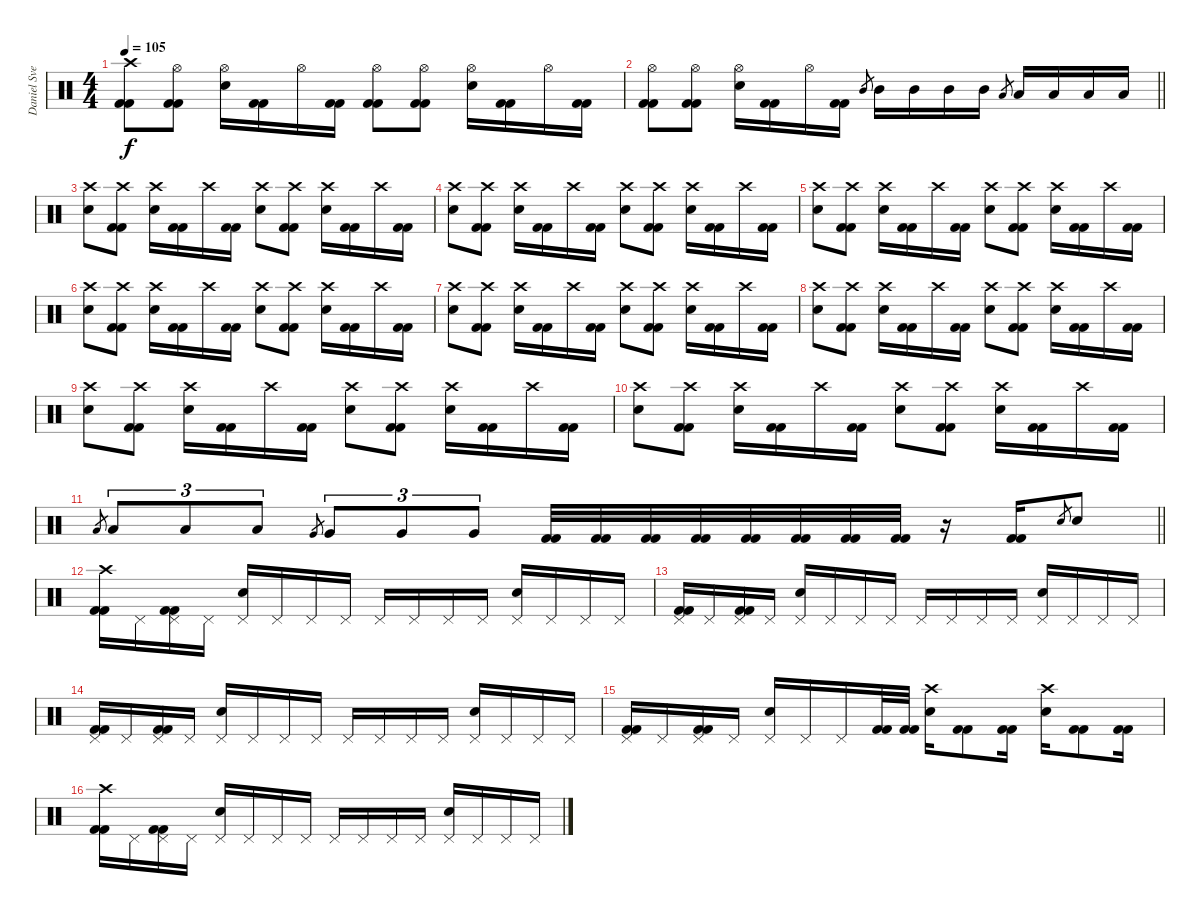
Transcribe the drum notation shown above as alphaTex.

\track ("Daniel Svensson" "Daniel Sve") {instrument percussion}
\staff {score}
\articulation defaults
\ts (4 4)
\tempo 105
\clef neutral
\ks c
("Crash high (hit)" "Kick (hit) 2" "Kick (hit) 2").8{dy f} ("Hi-Hat (open)" "Kick (hit) 2" "Kick (hit) 2").8 ("Hi-Hat (open)" "Electric Snare (hit)").16 ("Kick (hit) 2" "Kick (hit) 2").16 "Hi-Hat (open)".16 ("Kick (hit) 2" "Kick (hit) 2").16 ("Hi-Hat (open)" "Kick (hit) 2" "Kick (hit) 2").8 ("Hi-Hat (open)" "Kick (hit) 2" "Kick (hit) 2").8 ("Hi-Hat (open)" "Electric Snare (hit)").16 ("Kick (hit) 2" "Kick (hit) 2").16 "Hi-Hat (open)".16 ("Kick (hit) 2" "Kick (hit) 2").16 |
\barLineRight lightlight
("Hi-Hat (open)" "Kick (hit) 2" "Kick (hit) 2").8 ("Hi-Hat (open)" "Kick (hit) 2" "Kick (hit) 2").8 ("Hi-Hat (open)" "Electric Snare (hit)").16 ("Kick (hit) 2" "Kick (hit) 2").16 "Hi-Hat (open)".16 ("Kick (hit) 2" "Kick (hit) 2").16 "Mid Tom (hit)".8{gr} "Mid Tom (hit)".16 "Mid Tom (hit)".16 "Mid Tom (hit)".16 "Mid Tom (hit)".16 "Low Tom (hit)".8{gr} "Low Tom (hit)".16 "Low Tom (hit)".16 "Low Tom (hit)".16 "Low Tom (hit)".16 |
("Crash high (hit)" "Electric Snare (hit)").8 ("Crash high (hit)" "Kick (hit) 2" "Kick (hit) 2").8 ("Crash high (hit)" "Electric Snare (hit)").16 ("Kick (hit) 2" "Kick (hit) 2").16 "Crash high (hit)".16 ("Kick (hit) 2" "Kick (hit) 2").16 ("Crash high (hit)" "Electric Snare (hit)").8 ("Crash high (hit)" "Kick (hit) 2" "Kick (hit) 2").8 ("Crash high (hit)" "Electric Snare (hit)").16 ("Kick (hit) 2" "Kick (hit) 2").16 "Crash high (hit)".16 ("Kick (hit) 2" "Kick (hit) 2").16 |
("Crash high (hit)" "Electric Snare (hit)").8 ("Crash high (hit)" "Kick (hit) 2" "Kick (hit) 2").8 ("Crash high (hit)" "Electric Snare (hit)").16 ("Kick (hit) 2" "Kick (hit) 2").16 "Crash high (hit)".16 ("Kick (hit) 2" "Kick (hit) 2").16 ("Crash high (hit)" "Electric Snare (hit)").8 ("Crash high (hit)" "Kick (hit) 2" "Kick (hit) 2").8 ("Crash high (hit)" "Electric Snare (hit)").16 ("Kick (hit) 2" "Kick (hit) 2").16 "Crash high (hit)".16 ("Kick (hit) 2" "Kick (hit) 2").16 |
("Crash high (hit)" "Electric Snare (hit)").8 ("Crash high (hit)" "Kick (hit) 2" "Kick (hit) 2").8 ("Crash high (hit)" "Electric Snare (hit)").16 ("Kick (hit) 2" "Kick (hit) 2").16 "Crash high (hit)".16 ("Kick (hit) 2" "Kick (hit) 2").16 ("Crash high (hit)" "Electric Snare (hit)").8 ("Crash high (hit)" "Kick (hit) 2" "Kick (hit) 2").8 ("Crash high (hit)" "Electric Snare (hit)").16 ("Kick (hit) 2" "Kick (hit) 2").16 "Crash high (hit)".16 ("Kick (hit) 2" "Kick (hit) 2").16 |
("Crash high (hit)" "Electric Snare (hit)").8 ("Crash high (hit)" "Kick (hit) 2" "Kick (hit) 2").8 ("Crash high (hit)" "Electric Snare (hit)").16 ("Kick (hit) 2" "Kick (hit) 2").16 "Crash high (hit)".16 ("Kick (hit) 2" "Kick (hit) 2").16 ("Crash high (hit)" "Electric Snare (hit)").8 ("Crash high (hit)" "Kick (hit) 2" "Kick (hit) 2").8 ("Crash high (hit)" "Electric Snare (hit)").16 ("Kick (hit) 2" "Kick (hit) 2").16 "Crash high (hit)".16 ("Kick (hit) 2" "Kick (hit) 2").16 |
("Crash high (hit)" "Electric Snare (hit)").8 ("Crash high (hit)" "Kick (hit) 2" "Kick (hit) 2").8 ("Crash high (hit)" "Electric Snare (hit)").16 ("Kick (hit) 2" "Kick (hit) 2").16 "Crash high (hit)".16 ("Kick (hit) 2" "Kick (hit) 2").16 ("Crash high (hit)" "Electric Snare (hit)").8 ("Crash high (hit)" "Kick (hit) 2" "Kick (hit) 2").8 ("Crash high (hit)" "Electric Snare (hit)").16 ("Kick (hit) 2" "Kick (hit) 2").16 "Crash high (hit)".16 ("Kick (hit) 2" "Kick (hit) 2").16 |
("Crash high (hit)" "Electric Snare (hit)").8 ("Crash high (hit)" "Kick (hit) 2" "Kick (hit) 2").8 ("Crash high (hit)" "Electric Snare (hit)").16 ("Kick (hit) 2" "Kick (hit) 2").16 "Crash high (hit)".16 ("Kick (hit) 2" "Kick (hit) 2").16 ("Crash high (hit)" "Electric Snare (hit)").8 ("Crash high (hit)" "Kick (hit) 2" "Kick (hit) 2").8 ("Crash high (hit)" "Electric Snare (hit)").16 ("Kick (hit) 2" "Kick (hit) 2").16 "Crash high (hit)".16 ("Kick (hit) 2" "Kick (hit) 2").16 |
("Crash high (hit)" "Electric Snare (hit)").8 ("Crash high (hit)" "Kick (hit) 2" "Kick (hit) 2").8 ("Crash high (hit)" "Electric Snare (hit)").16 ("Kick (hit) 2" "Kick (hit) 2").16 "Crash high (hit)".16 ("Kick (hit) 2" "Kick (hit) 2").16 ("Crash high (hit)" "Electric Snare (hit)").8 ("Crash high (hit)" "Kick (hit) 2" "Kick (hit) 2").8 ("Crash high (hit)" "Electric Snare (hit)").16 ("Kick (hit) 2" "Kick (hit) 2").16 "Crash high (hit)".16 ("Kick (hit) 2" "Kick (hit) 2").16 |
("Crash high (hit)" "Electric Snare (hit)").8 ("Crash high (hit)" "Kick (hit) 2" "Kick (hit) 2").8 ("Crash high (hit)" "Electric Snare (hit)").16 ("Kick (hit) 2" "Kick (hit) 2").16 "Crash high (hit)".16 ("Kick (hit) 2" "Kick (hit) 2").16 ("Crash high (hit)" "Electric Snare (hit)").8 ("Crash high (hit)" "Kick (hit) 2" "Kick (hit) 2").8 ("Crash high (hit)" "Electric Snare (hit)").16 ("Kick (hit) 2" "Kick (hit) 2").16 "Crash high (hit)".16 ("Kick (hit) 2" "Kick (hit) 2").16 |
\barLineRight lightlight "Low Tom (hit)".8{gr} "Low Tom (hit)".8{tu (3 2)} "Low Tom (hit)".8{tu (3 2)} "Low Tom (hit)".8{tu (3 2)} "Very Low Tom (hit)".8{gr} "Very Low Tom (hit)".8{tu (3 2)} "Very Low Tom (hit)".8{tu (3 2)} "Very Low Tom (hit)".8{tu (3 2)}
("Kick (hit) 2" "Kick (hit) 2").32 ("Kick (hit) 2" "Kick (hit) 2").32 ("Kick (hit) 2" "Kick (hit) 2").32 ("Kick (hit) 2" "Kick (hit) 2").32 ("Kick (hit) 2" "Kick (hit) 2").32 ("Kick (hit) 2" "Kick (hit) 2").32 ("Kick (hit) 2" "Kick (hit) 2").32 ("Kick (hit) 2" "Kick (hit) 2").32 r.16 ("Kick (hit) 2" "Kick (hit) 2").16 "Electric Snare (hit)".8{gr} "Electric Snare (hit)".8 |
("Crash high (hit)" "Kick (hit) 2" "Kick (hit) 2").16 "Pedal Hi-Hat (hit)".16 ("Pedal Hi-Hat (hit)" "Kick (hit) 2" "Kick (hit) 2").16 "Pedal Hi-Hat (hit)".16 ("Pedal Hi-Hat (hit)" "Electric Snare (hit)").16 "Pedal Hi-Hat (hit)".16 "Pedal Hi-Hat (hit)".16 "Pedal Hi-Hat (hit)".16 "Pedal Hi-Hat (hit)".16 "Pedal Hi-Hat (hit)".16 "Pedal Hi-Hat (hit)".16 "Pedal Hi-Hat (hit)".16 ("Pedal Hi-Hat (hit)" "Electric Snare (hit)").16 "Pedal Hi-Hat (hit)".16 "Pedal Hi-Hat (hit)".16 "Pedal Hi-Hat (hit)".16 |
("Pedal Hi-Hat (hit)" "Kick (hit) 2" "Kick (hit) 2").16 "Pedal Hi-Hat (hit)".16 ("Pedal Hi-Hat (hit)" "Kick (hit) 2" "Kick (hit) 2").16 "Pedal Hi-Hat (hit)".16 ("Pedal Hi-Hat (hit)" "Electric Snare (hit)").16 "Pedal Hi-Hat (hit)".16 "Pedal Hi-Hat (hit)".16 "Pedal Hi-Hat (hit)".16 "Pedal Hi-Hat (hit)".16 "Pedal Hi-Hat (hit)".16 "Pedal Hi-Hat (hit)".16 "Pedal Hi-Hat (hit)".16 ("Pedal Hi-Hat (hit)" "Electric Snare (hit)").16 "Pedal Hi-Hat (hit)".16 "Pedal Hi-Hat (hit)".16 "Pedal Hi-Hat (hit)".16 |
("Pedal Hi-Hat (hit)" "Kick (hit) 2" "Kick (hit) 2").16 "Pedal Hi-Hat (hit)".16 ("Pedal Hi-Hat (hit)" "Kick (hit) 2" "Kick (hit) 2").16 "Pedal Hi-Hat (hit)".16 ("Pedal Hi-Hat (hit)" "Electric Snare (hit)").16 "Pedal Hi-Hat (hit)".16 "Pedal Hi-Hat (hit)".16 "Pedal Hi-Hat (hit)".16 "Pedal Hi-Hat (hit)".16 "Pedal Hi-Hat (hit)".16 "Pedal Hi-Hat (hit)".16 "Pedal Hi-Hat (hit)".16 ("Pedal Hi-Hat (hit)" "Electric Snare (hit)").16 "Pedal Hi-Hat (hit)".16 "Pedal Hi-Hat (hit)".16 "Pedal Hi-Hat (hit)".16 |
("Pedal Hi-Hat (hit)" "Kick (hit) 2" "Kick (hit) 2").16 "Pedal Hi-Hat (hit)".16 ("Pedal Hi-Hat (hit)" "Kick (hit) 2" "Kick (hit) 2").16 "Pedal Hi-Hat (hit)".16 ("Pedal Hi-Hat (hit)" "Electric Snare (hit)").16 "Pedal Hi-Hat (hit)".16 "Pedal Hi-Hat (hit)".16 ("Kick (hit) 2" "Kick (hit) 2").32 ("Kick (hit) 2" "Kick (hit) 2").32 ("Crash high (hit)" "Electric Snare (hit)").16 ("Kick (hit) 2" "Kick (hit) 2").8 ("Kick (hit) 2" "Kick (hit) 2").16 ("Crash high (hit)" "Electric Snare (hit)").16 ("Kick (hit) 2" "Kick (hit) 2").8 ("Kick (hit) 2" "Kick (hit) 2").16 |
("Crash high (hit)" "Kick (hit) 2" "Kick (hit) 2").16 "Pedal Hi-Hat (hit)".16 ("Pedal Hi-Hat (hit)" "Kick (hit) 2" "Kick (hit) 2").16 "Pedal Hi-Hat (hit)".16 ("Pedal Hi-Hat (hit)" "Electric Snare (hit)").16 "Pedal Hi-Hat (hit)".16 "Pedal Hi-Hat (hit)".16 "Pedal Hi-Hat (hit)".16 "Pedal Hi-Hat (hit)".16 "Pedal Hi-Hat (hit)".16 "Pedal Hi-Hat (hit)".16 "Pedal Hi-Hat (hit)".16 ("Pedal Hi-Hat (hit)" "Electric Snare (hit)").16 "Pedal Hi-Hat (hit)".16 "Pedal Hi-Hat (hit)".16 "Pedal Hi-Hat (hit)".16
